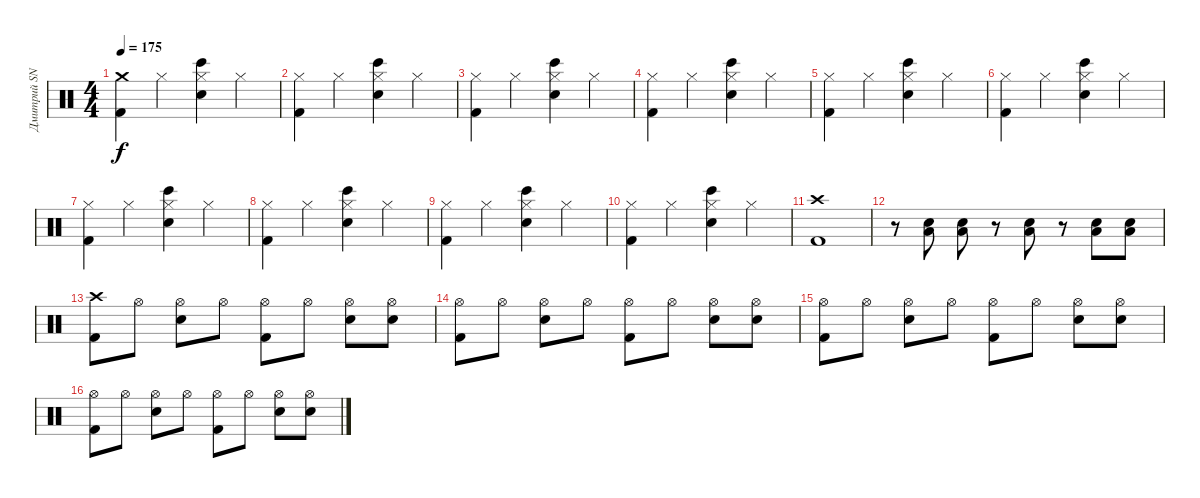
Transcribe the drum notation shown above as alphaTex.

\track ("Дмитрий SNAKE Хакимов" "Дмитрий SN") {instrument percussion}
\staff {score}
\articulation defaults
\ts (4 4)
\tempo 175
\clef neutral
\ks c
("Crash medium (hit)" "Kick (hit) 2").4{dy f} "Hi-Hat (closed)".4 ("Hi-Hat (closed)" "Bongo High (hit)" "Snare (hit) 2").4 "Hi-Hat (closed)".4 |
("Hi-Hat (closed)" "Kick (hit) 2").4 "Hi-Hat (closed)".4 ("Hi-Hat (closed)" "Bongo High (hit)" "Snare (hit) 2").4 "Hi-Hat (closed)".4 |
("Hi-Hat (closed)" "Kick (hit) 2").4 "Hi-Hat (closed)".4 ("Hi-Hat (closed)" "Bongo High (hit)" "Snare (hit) 2").4 "Hi-Hat (closed)".4 |
("Hi-Hat (closed)" "Kick (hit) 2").4 "Hi-Hat (closed)".4 ("Hi-Hat (closed)" "Bongo High (hit)" "Snare (hit) 2").4 "Hi-Hat (closed)".4 |
("Hi-Hat (closed)" "Kick (hit) 2").4 "Hi-Hat (closed)".4 ("Hi-Hat (closed)" "Bongo High (hit)" "Snare (hit) 2").4 "Hi-Hat (closed)".4 |
("Hi-Hat (closed)" "Kick (hit) 2").4 "Hi-Hat (closed)".4 ("Hi-Hat (closed)" "Bongo High (hit)" "Snare (hit) 2").4 "Hi-Hat (closed)".4 |
("Hi-Hat (closed)" "Kick (hit) 2").4 "Hi-Hat (closed)".4 ("Hi-Hat (closed)" "Bongo High (hit)" "Snare (hit) 2").4 "Hi-Hat (closed)".4 |
("Hi-Hat (closed)" "Kick (hit) 2").4 "Hi-Hat (closed)".4 ("Hi-Hat (closed)" "Bongo High (hit)" "Snare (hit) 2").4 "Hi-Hat (closed)".4 |
("Hi-Hat (closed)" "Kick (hit) 2").4 "Hi-Hat (closed)".4 ("Hi-Hat (closed)" "Bongo High (hit)" "Snare (hit) 2").4 "Hi-Hat (closed)".4 |
("Hi-Hat (closed)" "Kick (hit) 2").4 "Hi-Hat (closed)".4 ("Hi-Hat (closed)" "Bongo High (hit)" "Snare (hit) 2").4 "Hi-Hat (closed)".4 |
("Crash high (hit)" "Kick (hit) 2").1 |
r.8 ("Snare (hit) 2" "Low Tom (hit)").8 ("Snare (hit) 2" "Low Tom (hit)").8 r.8 ("Snare (hit) 2" "Low Tom (hit)").8 r.8 ("Snare (hit) 2" "Low Tom (hit)").8 ("Snare (hit) 2" "Low Tom (hit)").8 |
("Crash high (hit)" "Kick (hit) 2").8 "Hi-Hat (open)".8 ("Hi-Hat (open)" "Snare (hit) 2").8 "Hi-Hat (open)".8 ("Hi-Hat (open)" "Kick (hit) 2").8 "Hi-Hat (open)".8 ("Hi-Hat (open)" "Snare (hit) 2").8 ("Hi-Hat (open)" "Snare (hit) 2").8 |
("Hi-Hat (open)" "Kick (hit) 2").8 "Hi-Hat (open)".8 ("Hi-Hat (open)" "Snare (hit) 2").8 "Hi-Hat (open)".8 ("Hi-Hat (open)" "Kick (hit) 2").8 "Hi-Hat (open)".8 ("Hi-Hat (open)" "Snare (hit) 2").8 ("Hi-Hat (open)" "Snare (hit) 2").8 |
("Hi-Hat (open)" "Kick (hit) 2").8 "Hi-Hat (open)".8 ("Hi-Hat (open)" "Snare (hit) 2").8 "Hi-Hat (open)".8 ("Hi-Hat (open)" "Kick (hit) 2").8 "Hi-Hat (open)".8 ("Hi-Hat (open)" "Snare (hit) 2").8 ("Hi-Hat (open)" "Snare (hit) 2").8 |
("Hi-Hat (open)" "Kick (hit) 2").8 "Hi-Hat (open)".8 ("Hi-Hat (open)" "Snare (hit) 2").8 "Hi-Hat (open)".8 ("Hi-Hat (open)" "Kick (hit) 2").8 "Hi-Hat (open)".8 ("Hi-Hat (open)" "Snare (hit) 2").8 ("Hi-Hat (open)" "Snare (hit) 2").8
